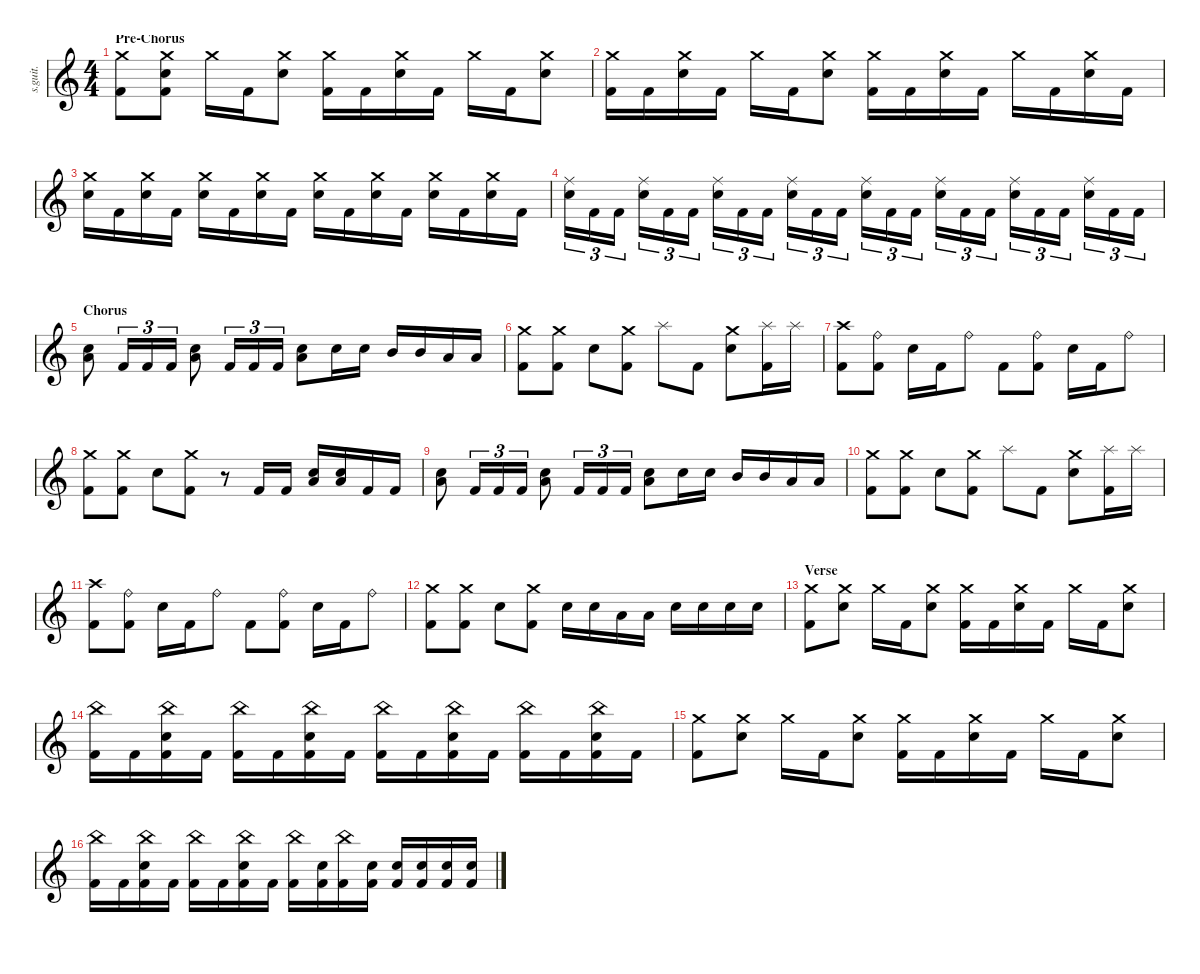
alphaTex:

\defaultSystemsLayout 4
\hideDynamics
\bracketExtendMode nobrackets
\track ("The Rev" "s.guit.") {instrument percussion}
\staff {score}
\articulation defaults
\ts (4 4)
\section ("" "Pre-Chorus")
\tempo (125 hide)
\clef g2
\ks c
("Crash medium (hit)" "Kick (hit) 2").8{lyrics (0 "") lyrics (1 "") lyrics (2 "") lyrics (3 "") lyrics (4 "") dy fff} ("Crash medium (hit)" "Electric Snare (hit)" "Kick (hit) 2").8{lyrics (0 "") lyrics (1 "") lyrics (2 "") lyrics (3 "") lyrics (4 "") dy f} "Crash medium (hit)".16{lyrics (0 "") lyrics (1 "") lyrics (2 "") lyrics (3 "") lyrics (4 "") dy mp} "Kick (hit) 2".16{lyrics (0 "") lyrics (1 "") lyrics (2 "") lyrics (3 "") lyrics (4 "") dy fff} ("Crash medium (hit)" "Electric Snare (hit)").8{lyrics (0 "") lyrics (1 "") lyrics (2 "") lyrics (3 "") lyrics (4 "") dy f} ("Crash medium (hit)" "Kick (hit) 2").16{lyrics (0 "") lyrics (1 "") lyrics (2 "") lyrics (3 "") lyrics (4 "") dy mp} "Kick (hit) 2".16{lyrics (0 "") lyrics (1 "") lyrics (2 "") lyrics (3 "") lyrics (4 "") dy fff} ("Crash medium (hit)" "Electric Snare (hit)").16{lyrics (0 "") lyrics (1 "") lyrics (2 "") lyrics (3 "") lyrics (4 "") dy f} "Kick (hit) 2".16{lyrics (0 "") lyrics (1 "") lyrics (2 "") lyrics (3 "") lyrics (4 "") dy fff} "Crash medium (hit)".16{lyrics (0 "") lyrics (1 "") lyrics (2 "") lyrics (3 "") lyrics (4 "") dy mp} "Kick (hit) 2".16{lyrics (0 "") lyrics (1 "") lyrics (2 "") lyrics (3 "") lyrics (4 "") dy fff} ("Crash medium (hit)" "Electric Snare (hit)").8{lyrics (0 "") lyrics (1 "") lyrics (2 "") lyrics (3 "") lyrics (4 "") dy f} |
("Crash medium (hit)" "Kick (hit) 2").16{lyrics (0 "") lyrics (1 "") lyrics (2 "") lyrics (3 "") lyrics (4 "") dy mp} "Kick (hit) 2".16{lyrics (0 "") lyrics (1 "") lyrics (2 "") lyrics (3 "") lyrics (4 "") dy fff} ("Crash medium (hit)" "Electric Snare (hit)").16{lyrics (0 "") lyrics (1 "") lyrics (2 "") lyrics (3 "") lyrics (4 "") dy f} "Kick (hit) 2".16{lyrics (0 "") lyrics (1 "") lyrics (2 "") lyrics (3 "") lyrics (4 "") dy fff} "Crash medium (hit)".16{lyrics (0 "") lyrics (1 "") lyrics (2 "") lyrics (3 "") lyrics (4 "") dy mp} "Kick (hit) 2".16{lyrics (0 "") lyrics (1 "") lyrics (2 "") lyrics (3 "") lyrics (4 "") dy fff} ("Crash medium (hit)" "Electric Snare (hit)").8{lyrics (0 "") lyrics (1 "") lyrics (2 "") lyrics (3 "") lyrics (4 "") dy f} ("Crash medium (hit)" "Kick (hit) 2").16{lyrics (0 "") lyrics (1 "") lyrics (2 "") lyrics (3 "") lyrics (4 "") dy mp} "Kick (hit) 2".16{lyrics (0 "") lyrics (1 "") lyrics (2 "") lyrics (3 "") lyrics (4 "") dy fff} ("Crash medium (hit)" "Electric Snare (hit)").16{lyrics (0 "") lyrics (1 "") lyrics (2 "") lyrics (3 "") lyrics (4 "") dy f} "Kick (hit) 2".16{lyrics (0 "") lyrics (1 "") lyrics (2 "") lyrics (3 "") lyrics (4 "") dy fff} "Crash medium (hit)".16{lyrics (0 "") lyrics (1 "") lyrics (2 "") lyrics (3 "") lyrics (4 "") dy mp} "Kick (hit) 2".16{lyrics (0 "") lyrics (1 "") lyrics (2 "") lyrics (3 "") lyrics (4 "") dy fff} ("Crash medium (hit)" "Electric Snare (hit)").16{lyrics (0 "") lyrics (1 "") lyrics (2 "") lyrics (3 "") lyrics (4 "") dy f} "Kick (hit) 2".16{lyrics (0 "") lyrics (1 "") lyrics (2 "") lyrics (3 "") lyrics (4 "") dy fff} |
("Crash medium (hit)" "Electric Snare (hit)").16{lyrics (0 "") lyrics (1 "") lyrics (2 "") lyrics (3 "") lyrics (4 "") dy f} "Kick (hit) 2".16{lyrics (0 "") lyrics (1 "") lyrics (2 "") lyrics (3 "") lyrics (4 "") dy fff} ("Crash medium (hit)" "Electric Snare (hit)").16{lyrics (0 "") lyrics (1 "") lyrics (2 "") lyrics (3 "") lyrics (4 "") dy f} "Kick (hit) 2".16{lyrics (0 "") lyrics (1 "") lyrics (2 "") lyrics (3 "") lyrics (4 "") dy fff} ("Crash medium (hit)" "Electric Snare (hit)").16{lyrics (0 "") lyrics (1 "") lyrics (2 "") lyrics (3 "") lyrics (4 "") dy f} "Kick (hit) 2".16{lyrics (0 "") lyrics (1 "") lyrics (2 "") lyrics (3 "") lyrics (4 "") dy fff} ("Crash medium (hit)" "Electric Snare (hit)").16{lyrics (0 "") lyrics (1 "") lyrics (2 "") lyrics (3 "") lyrics (4 "") dy f} "Kick (hit) 2".16{lyrics (0 "") lyrics (1 "") lyrics (2 "") lyrics (3 "") lyrics (4 "") dy fff} ("Crash medium (hit)" "Electric Snare (hit)").16{lyrics (0 "") lyrics (1 "") lyrics (2 "") lyrics (3 "") lyrics (4 "") dy f} "Kick (hit) 2".16{lyrics (0 "") lyrics (1 "") lyrics (2 "") lyrics (3 "") lyrics (4 "") dy fff} ("Crash medium (hit)" "Electric Snare (hit)").16{lyrics (0 "") lyrics (1 "") lyrics (2 "") lyrics (3 "") lyrics (4 "") dy f} "Kick (hit) 2".16{lyrics (0 "") lyrics (1 "") lyrics (2 "") lyrics (3 "") lyrics (4 "") dy fff} ("Crash medium (hit)" "Electric Snare (hit)").16{lyrics (0 "") lyrics (1 "") lyrics (2 "") lyrics (3 "") lyrics (4 "") dy f} "Kick (hit) 2".16{lyrics (0 "") lyrics (1 "") lyrics (2 "") lyrics (3 "") lyrics (4 "") dy fff} ("Crash medium (hit)" "Electric Snare (hit)").16{lyrics (0 "") lyrics (1 "") lyrics (2 "") lyrics (3 "") lyrics (4 "") dy f} "Kick (hit) 2".16{lyrics (0 "") lyrics (1 "") lyrics (2 "") lyrics (3 "") lyrics (4 "") dy fff} |
("Ride (middle)" "Electric Snare (hit)").16{tu (3 2) lyrics (0 "") lyrics (1 "") lyrics (2 "") lyrics (3 "") lyrics (4 "") dy f} "Kick (hit) 2".16{tu (3 2) lyrics (0 "") lyrics (1 "") lyrics (2 "") lyrics (3 "") lyrics (4 "") dy fff} "Kick (hit) 2".16{tu (3 2) lyrics (0 "") lyrics (1 "") lyrics (2 "") lyrics (3 "") lyrics (4 "")} ("Ride (middle)" "Electric Snare (hit)").16{tu (3 2) lyrics (0 "") lyrics (1 "") lyrics (2 "") lyrics (3 "") lyrics (4 "") dy f} "Kick (hit) 2".16{tu (3 2) lyrics (0 "") lyrics (1 "") lyrics (2 "") lyrics (3 "") lyrics (4 "") dy fff} "Kick (hit) 2".16{tu (3 2) lyrics (0 "") lyrics (1 "") lyrics (2 "") lyrics (3 "") lyrics (4 "")} ("Ride (middle)" "Electric Snare (hit)").16{tu (3 2) lyrics (0 "") lyrics (1 "") lyrics (2 "") lyrics (3 "") lyrics (4 "") dy f} "Kick (hit) 2".16{tu (3 2) lyrics (0 "") lyrics (1 "") lyrics (2 "") lyrics (3 "") lyrics (4 "") dy fff} "Kick (hit) 2".16{tu (3 2) lyrics (0 "") lyrics (1 "") lyrics (2 "") lyrics (3 "") lyrics (4 "")} ("Ride (middle)" "Electric Snare (hit)").16{tu (3 2) lyrics (0 "") lyrics (1 "") lyrics (2 "") lyrics (3 "") lyrics (4 "") dy f} "Kick (hit) 2".16{tu (3 2) lyrics (0 "") lyrics (1 "") lyrics (2 "") lyrics (3 "") lyrics (4 "") dy fff} "Kick (hit) 2".16{tu (3 2) lyrics (0 "") lyrics (1 "") lyrics (2 "") lyrics (3 "") lyrics (4 "")} ("Ride (middle)" "Electric Snare (hit)").16{tu (3 2) lyrics (0 "") lyrics (1 "") lyrics (2 "") lyrics (3 "") lyrics (4 "") dy f} "Kick (hit) 2".16{tu (3 2) lyrics (0 "") lyrics (1 "") lyrics (2 "") lyrics (3 "") lyrics (4 "") dy fff} "Kick (hit) 2".16{tu (3 2) lyrics (0 "") lyrics (1 "") lyrics (2 "") lyrics (3 "") lyrics (4 "")} ("Ride (middle)" "Electric Snare (hit)").16{tu (3 2) lyrics (0 "") lyrics (1 "") lyrics (2 "") lyrics (3 "") lyrics (4 "") dy f} "Kick (hit) 2".16{tu (3 2) lyrics (0 "") lyrics (1 "") lyrics (2 "") lyrics (3 "") lyrics (4 "") dy fff} "Kick (hit) 2".16{tu (3 2) lyrics (0 "") lyrics (1 "") lyrics (2 "") lyrics (3 "") lyrics (4 "")} ("Ride (middle)" "Electric Snare (hit)").16{tu (3 2) lyrics (0 "") lyrics (1 "") lyrics (2 "") lyrics (3 "") lyrics (4 "") dy f} "Kick (hit) 2".16{tu (3 2) lyrics (0 "") lyrics (1 "") lyrics (2 "") lyrics (3 "") lyrics (4 "") dy fff} "Kick (hit) 2".16{tu (3 2) lyrics (0 "") lyrics (1 "") lyrics (2 "") lyrics (3 "") lyrics (4 "")} ("Ride (middle)" "Electric Snare (hit)").16{tu (3 2) lyrics (0 "") lyrics (1 "") lyrics (2 "") lyrics (3 "") lyrics (4 "") dy f} "Kick (hit) 2".16{tu (3 2) lyrics (0 "") lyrics (1 "") lyrics (2 "") lyrics (3 "") lyrics (4 "") dy fff} "Kick (hit) 2".16{tu (3 2) lyrics (0 "") lyrics (1 "") lyrics (2 "") lyrics (3 "") lyrics (4 "")} |
\section ("" "Chorus")
("Electric Snare (hit)" "Low Floor Tom (hit)").8{lyrics (0 "") lyrics (1 "") lyrics (2 "") lyrics (3 "") lyrics (4 "") dy f} "Kick (hit) 2".16{tu (3 2) lyrics (0 "") lyrics (1 "") lyrics (2 "") lyrics (3 "") lyrics (4 "") dy fff} "Kick (hit) 2".16{tu (3 2) lyrics (0 "") lyrics (1 "") lyrics (2 "") lyrics (3 "") lyrics (4 "")} "Kick (hit) 2".16{tu (3 2) lyrics (0 "") lyrics (1 "") lyrics (2 "") lyrics (3 "") lyrics (4 "")} ("Electric Snare (hit)" "Low Floor Tom (hit)").8{lyrics (0 "") lyrics (1 "") lyrics (2 "") lyrics (3 "") lyrics (4 "") dy f} "Kick (hit) 2".16{tu (3 2) lyrics (0 "") lyrics (1 "") lyrics (2 "") lyrics (3 "") lyrics (4 "") dy fff} "Kick (hit) 2".16{tu (3 2) lyrics (0 "") lyrics (1 "") lyrics (2 "") lyrics (3 "") lyrics (4 "")} "Kick (hit) 2".16{tu (3 2) lyrics (0 "") lyrics (1 "") lyrics (2 "") lyrics (3 "") lyrics (4 "")} ("Electric Snare (hit)" "Low Floor Tom (hit)").8{lyrics (0 "") lyrics (1 "") lyrics (2 "") lyrics (3 "") lyrics (4 "") dy f} "Electric Snare (hit)".16{lyrics (0 "") lyrics (1 "") lyrics (2 "") lyrics (3 "") lyrics (4 "") dy ff} "Electric Snare (hit)".16{lyrics (0 "") lyrics (1 "") lyrics (2 "") lyrics (3 "") lyrics (4 "")} "Mid Tom (hit)".16{lyrics (0 "") lyrics (1 "") lyrics (2 "") lyrics (3 "") lyrics (4 "") dy fff} "Mid Tom (hit)".16{lyrics (0 "") lyrics (1 "") lyrics (2 "") lyrics (3 "") lyrics (4 "")} "Low Tom (hit)".16{lyrics (0 "") lyrics (1 "") lyrics (2 "") lyrics (3 "") lyrics (4 "")} "Low Tom (hit)".16{lyrics (0 "") lyrics (1 "") lyrics (2 "") lyrics (3 "") lyrics (4 "")} |
("Crash medium (hit)" "Kick (hit) 2").8{lyrics (0 "") lyrics (1 "") lyrics (2 "") lyrics (3 "") lyrics (4 "")} ("Crash medium (hit)" "Kick (hit) 2").8{lyrics (0 "") lyrics (1 "") lyrics (2 "") lyrics (3 "") lyrics (4 "")} "Electric Snare (hit)".8{lyrics (0 "") lyrics (1 "") lyrics (2 "") lyrics (3 "") lyrics (4 "") dy f} ("Crash medium (hit)" "Kick (hit) 2").8{lyrics (0 "") lyrics (1 "") lyrics (2 "") lyrics (3 "") lyrics (4 "")} "Splash (hit)".8{lyrics (0 "") lyrics (1 "") lyrics (2 "") lyrics (3 "") lyrics (4 "") dy mf} "Kick (hit) 2".8{lyrics (0 "") lyrics (1 "") lyrics (2 "") lyrics (3 "") lyrics (4 "") dy fff} ("Crash medium (hit)" "Electric Snare (hit)").8{lyrics (0 "") lyrics (1 "") lyrics (2 "") lyrics (3 "") lyrics (4 "") dy f} ("Splash (hit)" "Kick (hit) 2").16{lyrics (0 "") lyrics (1 "") lyrics (2 "") lyrics (3 "") lyrics (4 "") dy mf} "Splash (hit)".16{lyrics (0 "") lyrics (1 "") lyrics (2 "") lyrics (3 "") lyrics (4 "")} |
("Crash high (hit)" "Kick (hit) 2").8{lyrics (0 "") lyrics (1 "") lyrics (2 "") lyrics (3 "") lyrics (4 "") dy f} ("Ride (bell)" "Kick (hit) 2").8{lyrics (0 "") lyrics (1 "") lyrics (2 "") lyrics (3 "") lyrics (4 "")} "Electric Snare (hit)".16{lyrics (0 "") lyrics (1 "") lyrics (2 "") lyrics (3 "") lyrics (4 "")} "Kick (hit) 2".16{lyrics (0 "") lyrics (1 "") lyrics (2 "") lyrics (3 "") lyrics (4 "") dy fff} "Ride (bell)".8{lyrics (0 "") lyrics (1 "") lyrics (2 "") lyrics (3 "") lyrics (4 "") dy f} "Kick (hit) 2".8{lyrics (0 "") lyrics (1 "") lyrics (2 "") lyrics (3 "") lyrics (4 "") dy fff} ("Ride (bell)" "Kick (hit) 2").8{lyrics (0 "") lyrics (1 "") lyrics (2 "") lyrics (3 "") lyrics (4 "")} "Electric Snare (hit)".16{lyrics (0 "") lyrics (1 "") lyrics (2 "") lyrics (3 "") lyrics (4 "") dy f} "Kick (hit) 2".16{lyrics (0 "") lyrics (1 "") lyrics (2 "") lyrics (3 "") lyrics (4 "") dy fff} "Ride (bell)".8{lyrics (0 "") lyrics (1 "") lyrics (2 "") lyrics (3 "") lyrics (4 "") dy f} |
("Crash medium (hit)" "Kick (hit) 2").8{lyrics (0 "") lyrics (1 "") lyrics (2 "") lyrics (3 "") lyrics (4 "")} ("Crash medium (hit)" "Kick (hit) 2").8{lyrics (0 "") lyrics (1 "") lyrics (2 "") lyrics (3 "") lyrics (4 "")} "Electric Snare (hit)".8{lyrics (0 "") lyrics (1 "") lyrics (2 "") lyrics (3 "") lyrics (4 "")} ("Crash medium (hit)" "Kick (hit) 2").8{lyrics (0 "") lyrics (1 "") lyrics (2 "") lyrics (3 "") lyrics (4 "")} r.8 "Kick (hit) 2".16{lyrics (0 "") lyrics (1 "") lyrics (2 "") lyrics (3 "") lyrics (4 "") dy fff} "Kick (hit) 2".16{lyrics (0 "") lyrics (1 "") lyrics (2 "") lyrics (3 "") lyrics (4 "")} ("Electric Snare (hit)" "Low Floor Tom (hit)").16{lyrics (0 "") lyrics (1 "") lyrics (2 "") lyrics (3 "") lyrics (4 "") dy f} ("Electric Snare (hit)" "Low Floor Tom (hit)").16{lyrics (0 "") lyrics (1 "") lyrics (2 "") lyrics (3 "") lyrics (4 "")} "Kick (hit) 2".16{lyrics (0 "") lyrics (1 "") lyrics (2 "") lyrics (3 "") lyrics (4 "") dy fff} "Kick (hit) 2".16{lyrics (0 "") lyrics (1 "") lyrics (2 "") lyrics (3 "") lyrics (4 "")} |
("Electric Snare (hit)" "Low Floor Tom (hit)").8{lyrics (0 "") lyrics (1 "") lyrics (2 "") lyrics (3 "") lyrics (4 "") dy f} "Kick (hit) 2".16{tu (3 2) lyrics (0 "") lyrics (1 "") lyrics (2 "") lyrics (3 "") lyrics (4 "") dy fff} "Kick (hit) 2".16{tu (3 2) lyrics (0 "") lyrics (1 "") lyrics (2 "") lyrics (3 "") lyrics (4 "")} "Kick (hit) 2".16{tu (3 2) lyrics (0 "") lyrics (1 "") lyrics (2 "") lyrics (3 "") lyrics (4 "")} ("Electric Snare (hit)" "Low Floor Tom (hit)").8{lyrics (0 "") lyrics (1 "") lyrics (2 "") lyrics (3 "") lyrics (4 "") dy f} "Kick (hit) 2".16{tu (3 2) lyrics (0 "") lyrics (1 "") lyrics (2 "") lyrics (3 "") lyrics (4 "") dy fff} "Kick (hit) 2".16{tu (3 2) lyrics (0 "") lyrics (1 "") lyrics (2 "") lyrics (3 "") lyrics (4 "")} "Kick (hit) 2".16{tu (3 2) lyrics (0 "") lyrics (1 "") lyrics (2 "") lyrics (3 "") lyrics (4 "")} ("Electric Snare (hit)" "Low Floor Tom (hit)").8{lyrics (0 "") lyrics (1 "") lyrics (2 "") lyrics (3 "") lyrics (4 "") dy f} "Electric Snare (hit)".16{lyrics (0 "") lyrics (1 "") lyrics (2 "") lyrics (3 "") lyrics (4 "") dy ff} "Electric Snare (hit)".16{lyrics (0 "") lyrics (1 "") lyrics (2 "") lyrics (3 "") lyrics (4 "")} "Mid Tom (hit)".16{lyrics (0 "") lyrics (1 "") lyrics (2 "") lyrics (3 "") lyrics (4 "") dy fff} "Mid Tom (hit)".16{lyrics (0 "") lyrics (1 "") lyrics (2 "") lyrics (3 "") lyrics (4 "")} "Low Tom (hit)".16{lyrics (0 "") lyrics (1 "") lyrics (2 "") lyrics (3 "") lyrics (4 "")} "Low Tom (hit)".16{lyrics (0 "") lyrics (1 "") lyrics (2 "") lyrics (3 "") lyrics (4 "")} |
("Crash medium (hit)" "Kick (hit) 2").8{lyrics (0 "") lyrics (1 "") lyrics (2 "") lyrics (3 "") lyrics (4 "")} ("Crash medium (hit)" "Kick (hit) 2").8{lyrics (0 "") lyrics (1 "") lyrics (2 "") lyrics (3 "") lyrics (4 "")} "Electric Snare (hit)".8{lyrics (0 "") lyrics (1 "") lyrics (2 "") lyrics (3 "") lyrics (4 "") dy f} ("Crash medium (hit)" "Kick (hit) 2").8{lyrics (0 "") lyrics (1 "") lyrics (2 "") lyrics (3 "") lyrics (4 "")} "Splash (hit)".8{lyrics (0 "") lyrics (1 "") lyrics (2 "") lyrics (3 "") lyrics (4 "") dy mf} "Kick (hit) 2".8{lyrics (0 "") lyrics (1 "") lyrics (2 "") lyrics (3 "") lyrics (4 "") dy fff} ("Crash medium (hit)" "Electric Snare (hit)").8{lyrics (0 "") lyrics (1 "") lyrics (2 "") lyrics (3 "") lyrics (4 "") dy f} ("Splash (hit)" "Kick (hit) 2").16{lyrics (0 "") lyrics (1 "") lyrics (2 "") lyrics (3 "") lyrics (4 "") dy mf} "Splash (hit)".16{lyrics (0 "") lyrics (1 "") lyrics (2 "") lyrics (3 "") lyrics (4 "")} |
("Crash high (hit)" "Kick (hit) 2").8{lyrics (0 "") lyrics (1 "") lyrics (2 "") lyrics (3 "") lyrics (4 "") dy f} ("Ride (bell)" "Kick (hit) 2").8{lyrics (0 "") lyrics (1 "") lyrics (2 "") lyrics (3 "") lyrics (4 "")} "Electric Snare (hit)".16{lyrics (0 "") lyrics (1 "") lyrics (2 "") lyrics (3 "") lyrics (4 "")} "Kick (hit) 2".16{lyrics (0 "") lyrics (1 "") lyrics (2 "") lyrics (3 "") lyrics (4 "") dy fff} "Ride (bell)".8{lyrics (0 "") lyrics (1 "") lyrics (2 "") lyrics (3 "") lyrics (4 "") dy f} "Kick (hit) 2".8{lyrics (0 "") lyrics (1 "") lyrics (2 "") lyrics (3 "") lyrics (4 "") dy fff} ("Ride (bell)" "Kick (hit) 2").8{lyrics (0 "") lyrics (1 "") lyrics (2 "") lyrics (3 "") lyrics (4 "")} "Electric Snare (hit)".16{lyrics (0 "") lyrics (1 "") lyrics (2 "") lyrics (3 "") lyrics (4 "") dy f} "Kick (hit) 2".16{lyrics (0 "") lyrics (1 "") lyrics (2 "") lyrics (3 "") lyrics (4 "") dy fff} "Ride (bell)".8{lyrics (0 "") lyrics (1 "") lyrics (2 "") lyrics (3 "") lyrics (4 "") dy f} |
("Crash medium (hit)" "Kick (hit) 2").8{lyrics (0 "") lyrics (1 "") lyrics (2 "") lyrics (3 "") lyrics (4 "")} ("Crash medium (hit)" "Kick (hit) 2").8{lyrics (0 "") lyrics (1 "") lyrics (2 "") lyrics (3 "") lyrics (4 "")} "Electric Snare (hit)".8{lyrics (0 "") lyrics (1 "") lyrics (2 "") lyrics (3 "") lyrics (4 "")} ("Crash medium (hit)" "Kick (hit) 2").8{lyrics (0 "") lyrics (1 "") lyrics (2 "") lyrics (3 "") lyrics (4 "")} "Electric Snare (hit)".16{lyrics (0 "") lyrics (1 "") lyrics (2 "") lyrics (3 "") lyrics (4 "") dy ff} "Electric Snare (hit)".16{lyrics (0 "") lyrics (1 "") lyrics (2 "") lyrics (3 "") lyrics (4 "")} "Low Tom (hit)".16{lyrics (0 "") lyrics (1 "") lyrics (2 "") lyrics (3 "") lyrics (4 "") dy fff} "Low Tom (hit)".16{lyrics (0 "") lyrics (1 "") lyrics (2 "") lyrics (3 "") lyrics (4 "")} "Electric Snare (hit)".16{lyrics (0 "") lyrics (1 "") lyrics (2 "") lyrics (3 "") lyrics (4 "") dy ff} "Electric Snare (hit)".16{lyrics (0 "") lyrics (1 "") lyrics (2 "") lyrics (3 "") lyrics (4 "")} "Electric Snare (hit)".16{lyrics (0 "") lyrics (1 "") lyrics (2 "") lyrics (3 "") lyrics (4 "")} "Electric Snare (hit)".16{lyrics (0 "") lyrics (1 "") lyrics (2 "") lyrics (3 "") lyrics (4 "")} |
\section ("" "Verse")
("Crash medium (hit)" "Kick (hit) 2").8{lyrics (0 "") lyrics (1 "") lyrics (2 "") lyrics (3 "") lyrics (4 "") dy mp} ("Crash medium (hit)" "Electric Snare (hit)").8{lyrics (0 "") lyrics (1 "") lyrics (2 "") lyrics (3 "") lyrics (4 "") dy f} "Crash medium (hit)".16{lyrics (0 "") lyrics (1 "") lyrics (2 "") lyrics (3 "") lyrics (4 "") dy mp} "Kick (hit) 2".16{lyrics (0 "") lyrics (1 "") lyrics (2 "") lyrics (3 "") lyrics (4 "") dy fff} ("Crash medium (hit)" "Electric Snare (hit)").8{lyrics (0 "") lyrics (1 "") lyrics (2 "") lyrics (3 "") lyrics (4 "") dy f} ("Crash medium (hit)" "Kick (hit) 2").16{lyrics (0 "") lyrics (1 "") lyrics (2 "") lyrics (3 "") lyrics (4 "") dy mp} "Kick (hit) 2".16{lyrics (0 "") lyrics (1 "") lyrics (2 "") lyrics (3 "") lyrics (4 "") dy fff} ("Crash medium (hit)" "Electric Snare (hit)").16{lyrics (0 "") lyrics (1 "") lyrics (2 "") lyrics (3 "") lyrics (4 "") dy f} "Kick (hit) 2".16{lyrics (0 "") lyrics (1 "") lyrics (2 "") lyrics (3 "") lyrics (4 "") dy fff} "Crash medium (hit)".16{lyrics (0 "") lyrics (1 "") lyrics (2 "") lyrics (3 "") lyrics (4 "") dy mp} "Kick (hit) 2".16{lyrics (0 "") lyrics (1 "") lyrics (2 "") lyrics (3 "") lyrics (4 "") dy fff} ("Crash medium (hit)" "Electric Snare (hit)").8{lyrics (0 "") lyrics (1 "") lyrics (2 "") lyrics (3 "") lyrics (4 "") dy f} |
("China (hit)" "Kick (hit) 2").16{lyrics (0 "") lyrics (1 "") lyrics (2 "") lyrics (3 "") lyrics (4 "") dy mp} "Kick (hit) 2".16{lyrics (0 "") lyrics (1 "") lyrics (2 "") lyrics (3 "") lyrics (4 "") dy fff} ("China (hit)" "Electric Snare (hit)" "Kick (hit) 2").16{lyrics (0 "") lyrics (1 "") lyrics (2 "") lyrics (3 "") lyrics (4 "") dy f} "Kick (hit) 2".16{lyrics (0 "") lyrics (1 "") lyrics (2 "") lyrics (3 "") lyrics (4 "") dy fff} ("China (hit)" "Kick (hit) 2").16{lyrics (0 "") lyrics (1 "") lyrics (2 "") lyrics (3 "") lyrics (4 "")} "Kick (hit) 2".16{lyrics (0 "") lyrics (1 "") lyrics (2 "") lyrics (3 "") lyrics (4 "")} ("China (hit)" "Electric Snare (hit)" "Kick (hit) 2").16{lyrics (0 "") lyrics (1 "") lyrics (2 "") lyrics (3 "") lyrics (4 "") dy f} "Kick (hit) 2".16{lyrics (0 "") lyrics (1 "") lyrics (2 "") lyrics (3 "") lyrics (4 "") dy fff} ("China (hit)" "Kick (hit) 2").16{lyrics (0 "") lyrics (1 "") lyrics (2 "") lyrics (3 "") lyrics (4 "")} "Kick (hit) 2".16{lyrics (0 "") lyrics (1 "") lyrics (2 "") lyrics (3 "") lyrics (4 "")} ("China (hit)" "Electric Snare (hit)" "Kick (hit) 2").16{lyrics (0 "") lyrics (1 "") lyrics (2 "") lyrics (3 "") lyrics (4 "") dy f} "Kick (hit) 2".16{lyrics (0 "") lyrics (1 "") lyrics (2 "") lyrics (3 "") lyrics (4 "") dy fff} ("China (hit)" "Kick (hit) 2").16{lyrics (0 "") lyrics (1 "") lyrics (2 "") lyrics (3 "") lyrics (4 "")} "Kick (hit) 2".16{lyrics (0 "") lyrics (1 "") lyrics (2 "") lyrics (3 "") lyrics (4 "")} ("China (hit)" "Electric Snare (hit)" "Kick (hit) 2").16{lyrics (0 "") lyrics (1 "") lyrics (2 "") lyrics (3 "") lyrics (4 "") dy f} "Kick (hit) 2".16{lyrics (0 "") lyrics (1 "") lyrics (2 "") lyrics (3 "") lyrics (4 "") dy fff} |
("Crash medium (hit)" "Kick (hit) 2").8{lyrics (0 "") lyrics (1 "") lyrics (2 "") lyrics (3 "") lyrics (4 "")} ("Crash medium (hit)" "Electric Snare (hit)").8{lyrics (0 "") lyrics (1 "") lyrics (2 "") lyrics (3 "") lyrics (4 "") dy f} "Crash medium (hit)".16{lyrics (0 "") lyrics (1 "") lyrics (2 "") lyrics (3 "") lyrics (4 "") dy mp} "Kick (hit) 2".16{lyrics (0 "") lyrics (1 "") lyrics (2 "") lyrics (3 "") lyrics (4 "") dy fff} ("Crash medium (hit)" "Electric Snare (hit)").8{lyrics (0 "") lyrics (1 "") lyrics (2 "") lyrics (3 "") lyrics (4 "") dy f} ("Crash medium (hit)" "Kick (hit) 2").16{lyrics (0 "") lyrics (1 "") lyrics (2 "") lyrics (3 "") lyrics (4 "") dy mp} "Kick (hit) 2".16{lyrics (0 "") lyrics (1 "") lyrics (2 "") lyrics (3 "") lyrics (4 "") dy fff} ("Crash medium (hit)" "Electric Snare (hit)").16{lyrics (0 "") lyrics (1 "") lyrics (2 "") lyrics (3 "") lyrics (4 "") dy f} "Kick (hit) 2".16{lyrics (0 "") lyrics (1 "") lyrics (2 "") lyrics (3 "") lyrics (4 "") dy fff} "Crash medium (hit)".16{lyrics (0 "") lyrics (1 "") lyrics (2 "") lyrics (3 "") lyrics (4 "") dy mp} "Kick (hit) 2".16{lyrics (0 "") lyrics (1 "") lyrics (2 "") lyrics (3 "") lyrics (4 "") dy fff} ("Crash medium (hit)" "Electric Snare (hit)").8{lyrics (0 "") lyrics (1 "") lyrics (2 "") lyrics (3 "") lyrics (4 "") dy f} |
("China (hit)" "Kick (hit) 2").16{lyrics (0 "") lyrics (1 "") lyrics (2 "") lyrics (3 "") lyrics (4 "")} "Kick (hit) 2".16{lyrics (0 "") lyrics (1 "") lyrics (2 "") lyrics (3 "") lyrics (4 "") dy fff} ("China (hit)" "Electric Snare (hit)" "Kick (hit) 2").16{lyrics (0 "") lyrics (1 "") lyrics (2 "") lyrics (3 "") lyrics (4 "") dy f} "Kick (hit) 2".16{lyrics (0 "") lyrics (1 "") lyrics (2 "") lyrics (3 "") lyrics (4 "") dy fff} ("China (hit)" "Kick (hit) 2").16{lyrics (0 "") lyrics (1 "") lyrics (2 "") lyrics (3 "") lyrics (4 "")} "Kick (hit) 2".16{lyrics (0 "") lyrics (1 "") lyrics (2 "") lyrics (3 "") lyrics (4 "")} ("China (hit)" "Electric Snare (hit)" "Kick (hit) 2").16{lyrics (0 "") lyrics (1 "") lyrics (2 "") lyrics (3 "") lyrics (4 "") dy f} "Kick (hit) 2".16{lyrics (0 "") lyrics (1 "") lyrics (2 "") lyrics (3 "") lyrics (4 "") dy fff} ("China (hit)" "Kick (hit) 2").16{lyrics (0 "") lyrics (1 "") lyrics (2 "") lyrics (3 "") lyrics (4 "")} ("Electric Snare (hit)" "Kick (hit) 2").16{lyrics (0 "") lyrics (1 "") lyrics (2 "") lyrics (3 "") lyrics (4 "")} ("China (hit)" "Kick (hit) 2").16{lyrics (0 "") lyrics (1 "") lyrics (2 "") lyrics (3 "") lyrics (4 "")} ("Electric Snare (hit)" "Kick (hit) 2").16{lyrics (0 "") lyrics (1 "") lyrics (2 "") lyrics (3 "") lyrics (4 "")} ("Electric Snare (hit)" "Kick (hit) 2").16{lyrics (0 "") lyrics (1 "") lyrics (2 "") lyrics (3 "") lyrics (4 "")} ("Electric Snare (hit)" "Kick (hit) 2").16{lyrics (0 "") lyrics (1 "") lyrics (2 "") lyrics (3 "") lyrics (4 "")} ("Electric Snare (hit)" "Kick (hit) 2").16{lyrics (0 "") lyrics (1 "") lyrics (2 "") lyrics (3 "") lyrics (4 "")} ("Electric Snare (hit)" "Kick (hit) 2").16{lyrics (0 "") lyrics (1 "") lyrics (2 "") lyrics (3 "") lyrics (4 "")}
